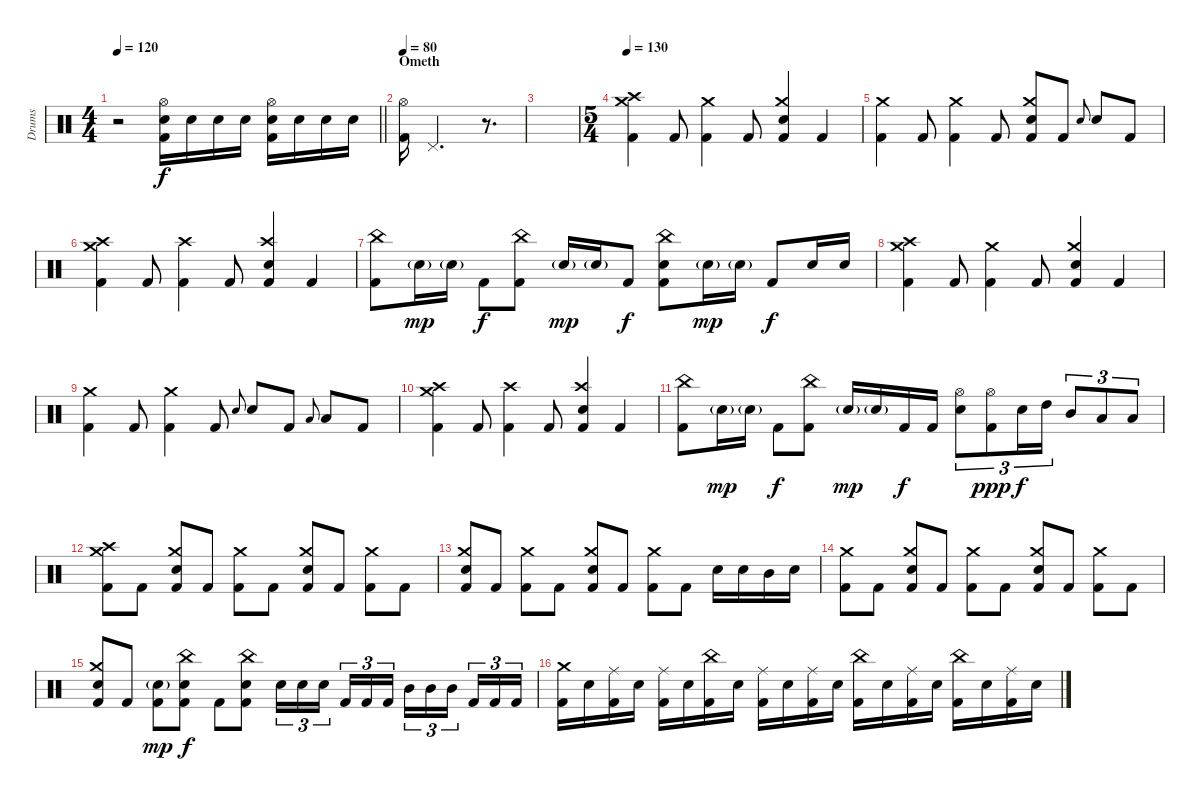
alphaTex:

\track ("Drums" "Drums") {instrument percussion}
\staff {score}
\articulation defaults
\ts (4 4)
\tempo 120
\clef neutral
\barLineRight lightlight
\ks c
r.2{dy f} ("Hi-Hat (open)" "Snare (hit) 2" "Kick (hit) 2").16 "Snare (hit) 2".16 "Snare (hit) 2".16 "Snare (hit) 2".16 ("Hi-Hat (open)" "Snare (hit) 2" "Kick (hit) 2").16 "Snare (hit) 2".16 "Snare (hit) 2".16 "Snare (hit) 2".16 |
\section ("" "Ometh")
\tempo 80
("Hi-Hat (open)" "Kick (hit) 2").16 "Pedal Hi-Hat (hit)".2{d} r.8{d} |
|
\ts (5 4)
\tempo 130
("Crash medium (hit)" "Crash high (hit)" "Kick (hit) 2").4 "Kick (hit) 2".8 ("Crash medium (hit)" "Kick (hit) 2").4 "Kick (hit) 2".8 ("Crash medium (hit)" "Electric Snare (hit)" "Kick (hit) 2").4 "Kick (hit) 2".4 |
("Crash medium (hit)" "Kick (hit) 2").4 "Kick (hit) 2".8 ("Crash medium (hit)" "Kick (hit) 2").4 "Kick (hit) 2".8 ("Crash medium (hit)" "Electric Snare (hit)" "Kick (hit) 2").8 "Kick (hit) 2".8 "Electric Snare (hit)".8{gr onbeat} "Electric Snare (hit)".8 "Kick (hit) 2".8 |
("Crash medium (hit)" "Crash high (hit)" "Kick (hit) 2").4 "Kick (hit) 2".8 ("Crash high (hit)" "Kick (hit) 2").4 "Kick (hit) 2".8 ("Crash high (hit)" "Electric Snare (hit)" "Kick (hit) 2").4 "Kick (hit) 2".4 |
("China (hit)" "Kick (hit) 2").8 "Electric Snare (hit)"{g}.16{dy mp} "Electric Snare (hit)"{g}.16 "Kick (hit) 2".8{dy f} ("China (hit)" "Kick (hit) 2").8 "Electric Snare (hit)"{g}.16{dy mp} "Electric Snare (hit)"{g}.16 "Kick (hit) 2".8{dy f} ("China (hit)" "Electric Snare (hit)" "Kick (hit) 2").8 "Electric Snare (hit)"{g}.16{dy mp} "Electric Snare (hit)"{g}.16 "Kick (hit) 2".8{dy f} "Electric Snare (hit)".16 "Electric Snare (hit)".16 |
("Crash medium (hit)" "Crash high (hit)" "Kick (hit) 2").4 "Kick (hit) 2".8 ("Crash medium (hit)" "Kick (hit) 2").4 "Kick (hit) 2".8 ("Crash medium (hit)" "Electric Snare (hit)" "Kick (hit) 2").4 "Kick (hit) 2".4 |
("Crash medium (hit)" "Kick (hit) 2").4 "Kick (hit) 2".8 ("Crash medium (hit)" "Kick (hit) 2").4 "Kick (hit) 2".8 "Electric Snare (hit)".8{gr onbeat} "Electric Snare (hit)".8 "Kick (hit) 2".8 "Low Tom (hit)".8{gr onbeat} "Low Tom (hit)".8 "Kick (hit) 2".8 |
("Crash medium (hit)" "Crash high (hit)" "Kick (hit) 2").4 "Kick (hit) 2".8 ("Crash high (hit)" "Kick (hit) 2").4 "Kick (hit) 2".8 ("Crash high (hit)" "Electric Snare (hit)" "Kick (hit) 2").4 "Kick (hit) 2".4 |
("China (hit)" "Kick (hit) 2").8 "Electric Snare (hit)"{g}.16{dy mp} "Electric Snare (hit)"{g}.16 "Kick (hit) 2".8{dy f} ("China (hit)" "Kick (hit) 2").8 "Electric Snare (hit)"{g}.16{dy mp} "Electric Snare (hit)"{g}.16 "Kick (hit) 2".16{dy f} "Kick (hit) 2".16 ("Hi-Hat (open)" "Electric Snare (hit)").8{tu (3 2)} ("Hi-Hat (open)" "Kick (hit) 2").8{tu (3 2) dy ppp} "Electric Snare (hit)".16{tu (3 2) dy f} "High Tom (hit)".16{tu (3 2)} "Mid Tom (hit)".8{tu (3 2)} "Low Tom (hit)".8{tu (3 2)} "Low Tom (hit)".8{tu (3 2)} |
("Crash medium (hit)" "Crash high (hit)" "Kick (hit) 2").8 "Kick (hit) 2".8 ("Crash medium (hit)" "Electric Snare (hit)" "Kick (hit) 2").8 "Kick (hit) 2".8 ("Crash medium (hit)" "Kick (hit) 2").8 "Kick (hit) 2".8 ("Crash medium (hit)" "Electric Snare (hit)" "Kick (hit) 2").8 "Kick (hit) 2".8 ("Crash medium (hit)" "Kick (hit) 2").8 "Kick (hit) 2".8 |
("Crash medium (hit)" "Electric Snare (hit)" "Kick (hit) 2").8 "Kick (hit) 2".8 ("Crash medium (hit)" "Kick (hit) 2").8 "Kick (hit) 2".8 ("Crash medium (hit)" "Electric Snare (hit)" "Kick (hit) 2").8 "Kick (hit) 2".8 ("Crash medium (hit)" "Kick (hit) 2").8 "Kick (hit) 2".8 "Electric Snare (hit)".16 "Electric Snare (hit)".16 "Mid Tom (hit)".16 "Electric Snare (hit)".16 |
("Crash medium (hit)" "Kick (hit) 2").8 "Kick (hit) 2".8 ("Crash medium (hit)" "Electric Snare (hit)" "Kick (hit) 2").8 "Kick (hit) 2".8 ("Crash medium (hit)" "Kick (hit) 2").8 "Kick (hit) 2".8 ("Crash medium (hit)" "Electric Snare (hit)" "Kick (hit) 2").8 "Kick (hit) 2".8 ("Crash medium (hit)" "Kick (hit) 2").8 "Kick (hit) 2".8 |
("Crash medium (hit)" "Electric Snare (hit)" "Kick (hit) 2").8 "Kick (hit) 2".8 ("Electric Snare (hit)"{g} "Kick (hit) 2").8{dy mp} ("China (hit)" "Electric Snare (hit)" "Kick (hit) 2").8{dy f} "Kick (hit) 2".8 ("China (hit)" "Electric Snare (hit)" "Kick (hit) 2").8 "Electric Snare (hit)".16{tu (3 2)} "Electric Snare (hit)".16{tu (3 2)} "Electric Snare (hit)".16{tu (3 2) beam splitsecondary} "Kick (hit) 2".16{tu (3 2)} "Kick (hit) 2".16{tu (3 2)} "Kick (hit) 2".16{tu (3 2)} "Mid Tom (hit)".16{tu (3 2)} "Mid Tom (hit)".16{tu (3 2)} "Mid Tom (hit)".16{tu (3 2) beam splitsecondary} "Kick (hit) 2".16{tu (3 2)} "Kick (hit) 2".16{tu (3 2)} "Kick (hit) 2".16{tu (3 2)} |
("Crash medium (hit)" "Kick (hit) 2").16 "Electric Snare (hit)".16 ("Ride (middle)" "Kick (hit) 2").16 "Electric Snare (hit)".16 ("Ride (middle)" "Kick (hit) 2").16 "Electric Snare (hit)".16 ("China (hit)" "Kick (hit) 2").16 "Electric Snare (hit)".16 ("Ride (middle)" "Kick (hit) 2").16 "Electric Snare (hit)".16 ("Ride (middle)" "Kick (hit) 2").16 "Electric Snare (hit)".16 ("China (hit)" "Kick (hit) 2").16 "Electric Snare (hit)".16 ("Ride (middle)" "Kick (hit) 2").16 "Electric Snare (hit)".16 ("China (hit)" "Kick (hit) 2").16 "Electric Snare (hit)".16 ("Ride (middle)" "Kick (hit) 2").16 "Electric Snare (hit)".16
